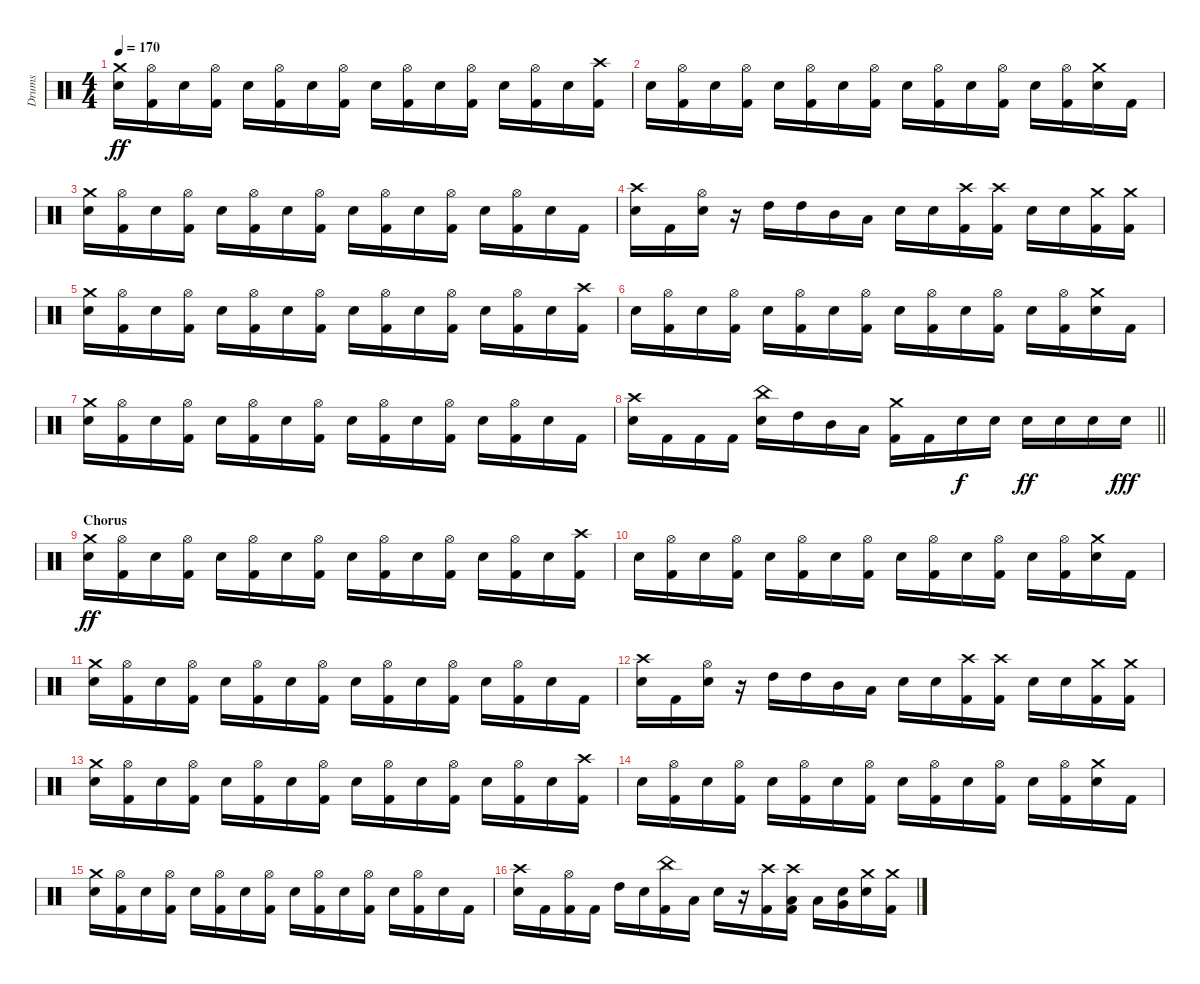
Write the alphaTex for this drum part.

\track ("Drums" "Drums") {instrument percussion}
\staff {score}
\articulation defaults
\ts (4 4)
\tempo 170
\clef neutral
\ks c
("Crash medium (hit)" "Snare (hit) 2").16{dy ff} ("Hi-Hat (open)" "Kick (hit) 2").16 "Snare (hit) 2".16 ("Hi-Hat (open)" "Kick (hit) 2").16 "Snare (hit) 2".16 ("Hi-Hat (open)" "Kick (hit) 2").16 "Snare (hit) 2".16 ("Hi-Hat (open)" "Kick (hit) 2").16 "Snare (hit) 2".16 ("Hi-Hat (open)" "Kick (hit) 2").16 "Snare (hit) 2".16 ("Hi-Hat (open)" "Kick (hit) 2").16 "Snare (hit) 2".16 ("Hi-Hat (open)" "Kick (hit) 2").16 "Snare (hit) 2".16 ("Crash high (hit)" "Kick (hit) 2").16 |
"Snare (hit) 2".16 ("Hi-Hat (open)" "Kick (hit) 2").16 "Snare (hit) 2".16 ("Hi-Hat (open)" "Kick (hit) 2").16 "Snare (hit) 2".16 ("Hi-Hat (open)" "Kick (hit) 2").16 "Snare (hit) 2".16 ("Hi-Hat (open)" "Kick (hit) 2").16 "Snare (hit) 2".16 ("Hi-Hat (open)" "Kick (hit) 2").16 "Snare (hit) 2".16 ("Hi-Hat (open)" "Kick (hit) 2").16 "Snare (hit) 2".16 ("Hi-Hat (open)" "Kick (hit) 2").16 ("Crash medium (hit)" "Snare (hit) 2").16 "Kick (hit) 2".16 |
("Crash medium (hit)" "Snare (hit) 2").16 ("Hi-Hat (open)" "Kick (hit) 2").16 "Snare (hit) 2".16 ("Hi-Hat (open)" "Kick (hit) 2").16 "Snare (hit) 2".16 ("Hi-Hat (open)" "Kick (hit) 2").16 "Snare (hit) 2".16 ("Hi-Hat (open)" "Kick (hit) 2").16 "Snare (hit) 2".16 ("Hi-Hat (open)" "Kick (hit) 2").16 "Snare (hit) 2".16 ("Hi-Hat (open)" "Kick (hit) 2").16 "Snare (hit) 2".16 ("Hi-Hat (open)" "Kick (hit) 2").16 "Snare (hit) 2".16 "Kick (hit) 2".16 |
("Crash high (hit)" "Snare (hit) 2").16 "Kick (hit) 2".16 ("Hi-Hat (open)" "Snare (hit) 2").16 r.16 "High Tom (hit)".16 "High Tom (hit)".16 "Mid Tom (hit)".16 "Low Tom (hit)".16 "Snare (hit) 2".16 "Snare (hit) 2".16 ("Crash high (hit)" "Kick (hit) 2").16 ("Crash high (hit)" "Kick (hit) 2").16 "Snare (hit) 2".16 "Snare (hit) 2".16 ("Crash medium (hit)" "Kick (hit) 2").16 ("Crash medium (hit)" "Kick (hit) 2").16 |
("Crash medium (hit)" "Snare (hit) 2").16 ("Hi-Hat (open)" "Kick (hit) 2").16 "Snare (hit) 2".16 ("Hi-Hat (open)" "Kick (hit) 2").16 "Snare (hit) 2".16 ("Hi-Hat (open)" "Kick (hit) 2").16 "Snare (hit) 2".16 ("Hi-Hat (open)" "Kick (hit) 2").16 "Snare (hit) 2".16 ("Hi-Hat (open)" "Kick (hit) 2").16 "Snare (hit) 2".16 ("Hi-Hat (open)" "Kick (hit) 2").16 "Snare (hit) 2".16 ("Hi-Hat (open)" "Kick (hit) 2").16 "Snare (hit) 2".16 ("Crash high (hit)" "Kick (hit) 2").16 |
"Snare (hit) 2".16 ("Hi-Hat (open)" "Kick (hit) 2").16 "Snare (hit) 2".16 ("Hi-Hat (open)" "Kick (hit) 2").16 "Snare (hit) 2".16 ("Hi-Hat (open)" "Kick (hit) 2").16 "Snare (hit) 2".16 ("Hi-Hat (open)" "Kick (hit) 2").16 "Snare (hit) 2".16 ("Hi-Hat (open)" "Kick (hit) 2").16 "Snare (hit) 2".16 ("Hi-Hat (open)" "Kick (hit) 2").16 "Snare (hit) 2".16 ("Hi-Hat (open)" "Kick (hit) 2").16 ("Crash medium (hit)" "Snare (hit) 2").16 "Kick (hit) 2".16 |
("Crash medium (hit)" "Snare (hit) 2").16 ("Hi-Hat (open)" "Kick (hit) 2").16 "Snare (hit) 2".16 ("Hi-Hat (open)" "Kick (hit) 2").16 "Snare (hit) 2".16 ("Hi-Hat (open)" "Kick (hit) 2").16 "Snare (hit) 2".16 ("Hi-Hat (open)" "Kick (hit) 2").16 "Snare (hit) 2".16 ("Hi-Hat (open)" "Kick (hit) 2").16 "Snare (hit) 2".16 ("Hi-Hat (open)" "Kick (hit) 2").16 "Snare (hit) 2".16 ("Hi-Hat (open)" "Kick (hit) 2").16 "Snare (hit) 2".16 "Kick (hit) 2".16 |
\barLineRight lightlight
("Crash high (hit)" "Snare (hit) 2").16 "Kick (hit) 2".16 "Kick (hit) 2".16 "Kick (hit) 2".16 ("China (hit)" "Snare (hit) 2").16 "High Tom (hit)".16 "Mid Tom (hit)".16 "Low Tom (hit)".16 ("Crash medium (hit)" "Kick (hit) 2").16 "Kick (hit) 2".16 "Snare (hit) 2".16{dy f} "Snare (hit) 2".16 "Snare (hit) 2".16{dy ff} "Snare (hit) 2".16 "Snare (hit) 2".16 "Snare (hit) 2".16{dy fff} |
\section ("" "Chorus")
("Crash medium (hit)" "Snare (hit) 2").16{dy ff} ("Hi-Hat (open)" "Kick (hit) 2").16 "Snare (hit) 2".16 ("Hi-Hat (open)" "Kick (hit) 2").16 "Snare (hit) 2".16 ("Hi-Hat (open)" "Kick (hit) 2").16 "Snare (hit) 2".16 ("Hi-Hat (open)" "Kick (hit) 2").16 "Snare (hit) 2".16 ("Hi-Hat (open)" "Kick (hit) 2").16 "Snare (hit) 2".16 ("Hi-Hat (open)" "Kick (hit) 2").16 "Snare (hit) 2".16 ("Hi-Hat (open)" "Kick (hit) 2").16 "Snare (hit) 2".16 ("Crash high (hit)" "Kick (hit) 2").16 |
"Snare (hit) 2".16 ("Hi-Hat (open)" "Kick (hit) 2").16 "Snare (hit) 2".16 ("Hi-Hat (open)" "Kick (hit) 2").16 "Snare (hit) 2".16 ("Hi-Hat (open)" "Kick (hit) 2").16 "Snare (hit) 2".16 ("Hi-Hat (open)" "Kick (hit) 2").16 "Snare (hit) 2".16 ("Hi-Hat (open)" "Kick (hit) 2").16 "Snare (hit) 2".16 ("Hi-Hat (open)" "Kick (hit) 2").16 "Snare (hit) 2".16 ("Hi-Hat (open)" "Kick (hit) 2").16 ("Crash medium (hit)" "Snare (hit) 2").16 "Kick (hit) 2".16 |
("Crash medium (hit)" "Snare (hit) 2").16 ("Hi-Hat (open)" "Kick (hit) 2").16 "Snare (hit) 2".16 ("Hi-Hat (open)" "Kick (hit) 2").16 "Snare (hit) 2".16 ("Hi-Hat (open)" "Kick (hit) 2").16 "Snare (hit) 2".16 ("Hi-Hat (open)" "Kick (hit) 2").16 "Snare (hit) 2".16 ("Hi-Hat (open)" "Kick (hit) 2").16 "Snare (hit) 2".16 ("Hi-Hat (open)" "Kick (hit) 2").16 "Snare (hit) 2".16 ("Hi-Hat (open)" "Kick (hit) 2").16 "Snare (hit) 2".16 "Kick (hit) 2".16 |
("Crash high (hit)" "Snare (hit) 2").16 "Kick (hit) 2".16 ("Hi-Hat (open)" "Snare (hit) 2").16 r.16 "High Tom (hit)".16 "High Tom (hit)".16 "Mid Tom (hit)".16 "Low Tom (hit)".16 "Snare (hit) 2".16 "Snare (hit) 2".16 ("Crash high (hit)" "Kick (hit) 2").16 ("Crash high (hit)" "Kick (hit) 2").16 "Snare (hit) 2".16 "Snare (hit) 2".16 ("Crash medium (hit)" "Kick (hit) 2").16 ("Crash medium (hit)" "Kick (hit) 2").16 |
("Crash medium (hit)" "Snare (hit) 2").16 ("Hi-Hat (open)" "Kick (hit) 2").16 "Snare (hit) 2".16 ("Hi-Hat (open)" "Kick (hit) 2").16 "Snare (hit) 2".16 ("Hi-Hat (open)" "Kick (hit) 2").16 "Snare (hit) 2".16 ("Hi-Hat (open)" "Kick (hit) 2").16 "Snare (hit) 2".16 ("Hi-Hat (open)" "Kick (hit) 2").16 "Snare (hit) 2".16 ("Hi-Hat (open)" "Kick (hit) 2").16 "Snare (hit) 2".16 ("Hi-Hat (open)" "Kick (hit) 2").16 "Snare (hit) 2".16 ("Crash high (hit)" "Kick (hit) 2").16 |
"Snare (hit) 2".16 ("Hi-Hat (open)" "Kick (hit) 2").16 "Snare (hit) 2".16 ("Hi-Hat (open)" "Kick (hit) 2").16 "Snare (hit) 2".16 ("Hi-Hat (open)" "Kick (hit) 2").16 "Snare (hit) 2".16 ("Hi-Hat (open)" "Kick (hit) 2").16 "Snare (hit) 2".16 ("Hi-Hat (open)" "Kick (hit) 2").16 "Snare (hit) 2".16 ("Hi-Hat (open)" "Kick (hit) 2").16 "Snare (hit) 2".16 ("Hi-Hat (open)" "Kick (hit) 2").16 ("Crash medium (hit)" "Snare (hit) 2").16 "Kick (hit) 2".16 |
("Crash medium (hit)" "Snare (hit) 2").16 ("Hi-Hat (open)" "Kick (hit) 2").16 "Snare (hit) 2".16 ("Hi-Hat (open)" "Kick (hit) 2").16 "Snare (hit) 2".16 ("Hi-Hat (open)" "Kick (hit) 2").16 "Snare (hit) 2".16 ("Hi-Hat (open)" "Kick (hit) 2").16 "Snare (hit) 2".16 ("Hi-Hat (open)" "Kick (hit) 2").16 "Snare (hit) 2".16 ("Hi-Hat (open)" "Kick (hit) 2").16 "Snare (hit) 2".16 ("Hi-Hat (open)" "Kick (hit) 2").16 "Snare (hit) 2".16 "Kick (hit) 2".16 |
("Crash high (hit)" "Snare (hit) 2").16 "Kick (hit) 2".16 ("Hi-Hat (open)" "Kick (hit) 2").16 "Kick (hit) 2".16 "High Tom (hit)".16 "Snare (hit) 2".16 ("China (hit)" "Kick (hit) 2").16 "Low Tom (hit)".16 "Snare (hit) 2".16 r.16 ("Crash high (hit)" "Kick (hit) 2").16 ("Crash high (hit)" "Kick (hit) 2" "Low Tom (hit)").16 "Low Tom (hit)".16 ("Snare (hit) 2" "Very Low Tom (hit)").16 ("Crash medium (hit)" "Snare (hit) 2").16 ("Crash medium (hit)" "Kick (hit) 2").16
